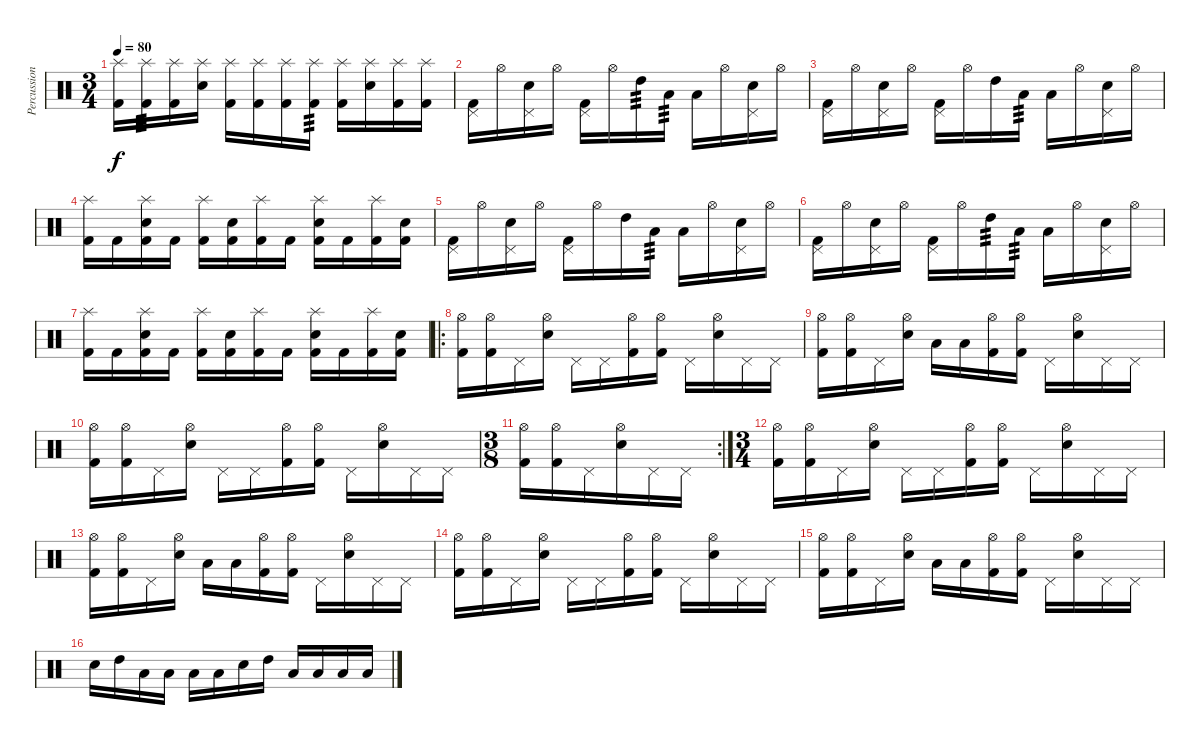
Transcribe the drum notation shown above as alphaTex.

\track ("Percussion" "Percussion") {instrument percussion}
\staff {score}
\articulation defaults
\ts (3 4)
\tempo 80
\clef neutral
\ks c
("Splash (hit)" "Kick (hit) 2").16{dy f} ("Splash (hit)" "Kick (hit) 2").16{tp 3} ("Splash (hit)" "Kick (hit) 2").16 ("Splash (hit)" "Electric Snare (hit)").16 ("Splash (hit)" "Kick (hit) 2").16 ("Splash (hit)" "Kick (hit) 2").16 ("Splash (hit)" "Kick (hit) 2").16 ("Splash (hit)" "Kick (hit) 2").16{tp 3} ("Splash (hit)" "Kick (hit) 2").16 ("Splash (hit)" "Electric Snare (hit)").16 ("Splash (hit)" "Kick (hit) 2").16 ("Splash (hit)" "Kick (hit) 2").16 |
("Pedal Hi-Hat (hit)" "Kick (hit) 2").16 "Hi-Hat (open)".16 ("Pedal Hi-Hat (hit)" "Electric Snare (hit)").16 "Hi-Hat (open)".16 ("Pedal Hi-Hat (hit)" "Kick (hit) 2").16 "Hi-Hat (open)".16 "High Tom (hit)".16{tp 3} "Low Tom (hit)".16{tp 3} "Low Floor Tom (hit)".16 "Hi-Hat (open)".16 ("Pedal Hi-Hat (hit)" "Electric Snare (hit)").16 "Hi-Hat (open)".16 |
("Pedal Hi-Hat (hit)" "Kick (hit) 2").16 "Hi-Hat (open)".16 ("Pedal Hi-Hat (hit)" "Electric Snare (hit)").16 "Hi-Hat (open)".16 ("Pedal Hi-Hat (hit)" "Kick (hit) 2").16 "Hi-Hat (open)".16 "High Tom (hit)".16 "Low Tom (hit)".16{tp 3} "Low Floor Tom (hit)".16 "Hi-Hat (open)".16 ("Pedal Hi-Hat (hit)" "Electric Snare (hit)").16 "Hi-Hat (open)".16 |
("Splash (hit)" "Kick (hit) 2").16 "Kick (hit) 2".16 ("Splash (hit)" "Electric Snare (hit)" "Kick (hit) 2").16 "Kick (hit) 2".16 ("Splash (hit)" "Kick (hit) 2").16 ("Electric Snare (hit)" "Kick (hit) 2").16 ("Splash (hit)" "Kick (hit) 2").16 "Kick (hit) 2".16 ("Splash (hit)" "Electric Snare (hit)" "Kick (hit) 2").16 "Kick (hit) 2".16 ("Splash (hit)" "Kick (hit) 2").16 ("Electric Snare (hit)" "Kick (hit) 2").16 |
("Pedal Hi-Hat (hit)" "Kick (hit) 2").16 "Hi-Hat (open)".16 ("Pedal Hi-Hat (hit)" "Electric Snare (hit)").16 "Hi-Hat (open)".16 ("Pedal Hi-Hat (hit)" "Kick (hit) 2").16 "Hi-Hat (open)".16 "High Tom (hit)".16 "Low Tom (hit)".16{tp 3} "Low Floor Tom (hit)".16 "Hi-Hat (open)".16 ("Pedal Hi-Hat (hit)" "Electric Snare (hit)").16 "Hi-Hat (open)".16 |
("Pedal Hi-Hat (hit)" "Kick (hit) 2").16 "Hi-Hat (open)".16 ("Pedal Hi-Hat (hit)" "Electric Snare (hit)").16 "Hi-Hat (open)".16 ("Pedal Hi-Hat (hit)" "Kick (hit) 2").16 "Hi-Hat (open)".16 "High Tom (hit)".16{tp 3} "Low Tom (hit)".16{tp 3} "Low Floor Tom (hit)".16 "Hi-Hat (open)".16 ("Pedal Hi-Hat (hit)" "Electric Snare (hit)").16 "Hi-Hat (open)".16 |
("Splash (hit)" "Kick (hit) 2").16 "Kick (hit) 2".16 ("Splash (hit)" "Electric Snare (hit)" "Kick (hit) 2").16 "Kick (hit) 2".16 ("Splash (hit)" "Kick (hit) 2").16 ("Electric Snare (hit)" "Kick (hit) 2").16 ("Splash (hit)" "Kick (hit) 2").16 "Kick (hit) 2".16 ("Splash (hit)" "Electric Snare (hit)" "Kick (hit) 2").16 "Kick (hit) 2".16 ("Splash (hit)" "Kick (hit) 2").16 ("Electric Snare (hit)" "Kick (hit) 2").16 |
\ro
("Hi-Hat (open)" "Kick (hit) 2").16 ("Hi-Hat (open)" "Kick (hit) 2").16 "Pedal Hi-Hat (hit)".16 ("Hi-Hat (open)" "Electric Snare (hit)").16 "Pedal Hi-Hat (hit)".16 "Pedal Hi-Hat (hit)".16 ("Hi-Hat (open)" "Kick (hit) 2").16 ("Hi-Hat (open)" "Kick (hit) 2").16 "Pedal Hi-Hat (hit)".16 ("Hi-Hat (open)" "Electric Snare (hit)").16 "Pedal Hi-Hat (hit)".16 "Pedal Hi-Hat (hit)".16 |
("Hi-Hat (open)" "Kick (hit) 2").16 ("Hi-Hat (open)" "Kick (hit) 2").16 "Pedal Hi-Hat (hit)".16 ("Hi-Hat (open)" "Electric Snare (hit)").16 "Low Floor Tom (hit)".16 "Low Tom (hit)".16 ("Hi-Hat (open)" "Kick (hit) 2").16 ("Hi-Hat (open)" "Kick (hit) 2").16 "Pedal Hi-Hat (hit)".16 ("Hi-Hat (open)" "Electric Snare (hit)").16 "Pedal Hi-Hat (hit)".16 "Pedal Hi-Hat (hit)".16 |
("Hi-Hat (open)" "Kick (hit) 2").16 ("Hi-Hat (open)" "Kick (hit) 2").16 "Pedal Hi-Hat (hit)".16 ("Hi-Hat (open)" "Electric Snare (hit)").16 "Pedal Hi-Hat (hit)".16 "Pedal Hi-Hat (hit)".16 ("Hi-Hat (open)" "Kick (hit) 2").16 ("Hi-Hat (open)" "Kick (hit) 2").16 "Pedal Hi-Hat (hit)".16 ("Hi-Hat (open)" "Electric Snare (hit)").16 "Pedal Hi-Hat (hit)".16 "Pedal Hi-Hat (hit)".16 |
\rc 2
\ts (3 8)
("Hi-Hat (open)" "Kick (hit) 2").16 ("Hi-Hat (open)" "Kick (hit) 2").16 "Pedal Hi-Hat (hit)".16 ("Hi-Hat (open)" "Electric Snare (hit)").16 "Pedal Hi-Hat (hit)".16 "Pedal Hi-Hat (hit)".16 |
\ts (3 4)
("Hi-Hat (open)" "Kick (hit) 2").16 ("Hi-Hat (open)" "Kick (hit) 2").16 "Pedal Hi-Hat (hit)".16 ("Hi-Hat (open)" "Electric Snare (hit)").16 "Pedal Hi-Hat (hit)".16 "Pedal Hi-Hat (hit)".16 ("Hi-Hat (open)" "Kick (hit) 2").16 ("Hi-Hat (open)" "Kick (hit) 2").16 "Pedal Hi-Hat (hit)".16 ("Hi-Hat (open)" "Electric Snare (hit)").16 "Pedal Hi-Hat (hit)".16 "Pedal Hi-Hat (hit)".16 |
("Hi-Hat (open)" "Kick (hit) 2").16 ("Hi-Hat (open)" "Kick (hit) 2").16 "Pedal Hi-Hat (hit)".16 ("Hi-Hat (open)" "Electric Snare (hit)").16 "Low Floor Tom (hit)".16 "Low Tom (hit)".16 ("Hi-Hat (open)" "Kick (hit) 2").16 ("Hi-Hat (open)" "Kick (hit) 2").16 "Pedal Hi-Hat (hit)".16 ("Hi-Hat (open)" "Electric Snare (hit)").16 "Pedal Hi-Hat (hit)".16 "Pedal Hi-Hat (hit)".16 |
("Hi-Hat (open)" "Kick (hit) 2").16 ("Hi-Hat (open)" "Kick (hit) 2").16 "Pedal Hi-Hat (hit)".16 ("Hi-Hat (open)" "Electric Snare (hit)").16 "Pedal Hi-Hat (hit)".16 "Pedal Hi-Hat (hit)".16 ("Hi-Hat (open)" "Kick (hit) 2").16 ("Hi-Hat (open)" "Kick (hit) 2").16 "Pedal Hi-Hat (hit)".16 ("Hi-Hat (open)" "Electric Snare (hit)").16 "Pedal Hi-Hat (hit)".16 "Pedal Hi-Hat (hit)".16 |
("Hi-Hat (open)" "Kick (hit) 2").16 ("Hi-Hat (open)" "Kick (hit) 2").16 "Pedal Hi-Hat (hit)".16 ("Hi-Hat (open)" "Electric Snare (hit)").16 "Low Floor Tom (hit)".16 "Low Tom (hit)".16 ("Hi-Hat (open)" "Kick (hit) 2").16 ("Hi-Hat (open)" "Kick (hit) 2").16 "Pedal Hi-Hat (hit)".16 ("Hi-Hat (open)" "Electric Snare (hit)").16 "Pedal Hi-Hat (hit)".16 "Pedal Hi-Hat (hit)".16 |
"Electric Snare (hit)".16 "High Tom (hit)".16 "Low Tom (hit)".16 "Low Floor Tom (hit)".16 "Low Floor Tom (hit)".16 "Low Floor Tom (hit)".16 "Electric Snare (hit)".16 "High Tom (hit)".16 "Low Tom (hit)".16 "Low Floor Tom (hit)".16 "Low Floor Tom (hit)".16 "Low Floor Tom (hit)".16
